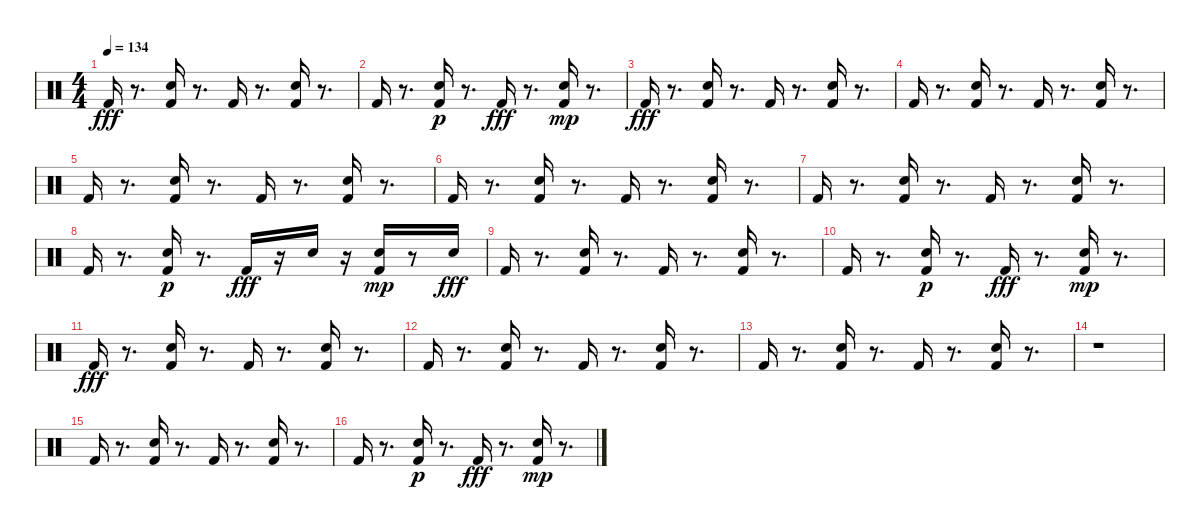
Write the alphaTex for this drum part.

\track "" {instrument percussion}
\staff {score}
\articulation defaults
\ts (4 4)
\tempo 134
\clef neutral
\ks c "Kick (hit) 2".16{dy fff}
r.8{d} ("Kick (hit) 2" "Snare (hit) 2").16 r.8{d} "Kick (hit) 2".16 r.8{d} ("Kick (hit) 2" "Snare (hit) 2").16 r.8{d} |
"Kick (hit) 2".16 r.8{d} ("Snare (hit) 2" "Kick (hit) 2").16{dy p} r.8{d} "Kick (hit) 2".16{dy fff} r.8{d} ("Snare (hit) 2" "Kick (hit) 2").16{dy mp} r.8{d} |
"Kick (hit) 2".16{dy fff} r.8{d} ("Kick (hit) 2" "Snare (hit) 2").16 r.8{d} "Kick (hit) 2".16 r.8{d} ("Kick (hit) 2" "Snare (hit) 2").16 r.8{d} |
"Kick (hit) 2".16 r.8{d} ("Kick (hit) 2" "Snare (hit) 2").16 r.8{d} "Kick (hit) 2".16 r.8{d} ("Kick (hit) 2" "Snare (hit) 2").16 r.8{d} |
"Kick (hit) 2".16 r.8{d} ("Kick (hit) 2" "Snare (hit) 2").16 r.8{d} "Kick (hit) 2".16 r.8{d} ("Kick (hit) 2" "Snare (hit) 2").16 r.8{d} |
"Kick (hit) 2".16 r.8{d} ("Kick (hit) 2" "Snare (hit) 2").16 r.8{d} "Kick (hit) 2".16 r.8{d} ("Kick (hit) 2" "Snare (hit) 2").16 r.8{d} |
"Kick (hit) 2".16 r.8{d} ("Kick (hit) 2" "Snare (hit) 2").16 r.8{d} "Kick (hit) 2".16 r.8{d} ("Kick (hit) 2" "Snare (hit) 2").16 r.8{d} |
"Kick (hit) 2".16 r.8{d} ("Snare (hit) 2" "Kick (hit) 2").16{dy p} r.8{d} "Kick (hit) 2".16{dy fff} r.16 "Snare (hit) 2".16 r.16 ("Snare (hit) 2" "Kick (hit) 2").16{dy mp} r.8 "Snare (hit) 2".16{dy fff} |
"Kick (hit) 2".16 r.8{d} ("Kick (hit) 2" "Snare (hit) 2").16 r.8{d} "Kick (hit) 2".16 r.8{d} ("Kick (hit) 2" "Snare (hit) 2").16 r.8{d} |
"Kick (hit) 2".16 r.8{d} ("Snare (hit) 2" "Kick (hit) 2").16{dy p} r.8{d} "Kick (hit) 2".16{dy fff} r.8{d} ("Snare (hit) 2" "Kick (hit) 2").16{dy mp} r.8{d} |
"Kick (hit) 2".16{dy fff} r.8{d} ("Kick (hit) 2" "Snare (hit) 2").16 r.8{d} "Kick (hit) 2".16 r.8{d} ("Kick (hit) 2" "Snare (hit) 2").16 r.8{d} |
"Kick (hit) 2".16 r.8{d} ("Kick (hit) 2" "Snare (hit) 2").16 r.8{d} "Kick (hit) 2".16 r.8{d} ("Kick (hit) 2" "Snare (hit) 2").16 r.8{d} |
"Kick (hit) 2".16 r.8{d} ("Kick (hit) 2" "Snare (hit) 2").16 r.8{d} "Kick (hit) 2".16 r.8{d} ("Kick (hit) 2" "Snare (hit) 2").16 r.8{d} |
r.1 |
"Kick (hit) 2".16 r.8{d} ("Kick (hit) 2" "Snare (hit) 2").16 r.8{d} "Kick (hit) 2".16 r.8{d} ("Kick (hit) 2" "Snare (hit) 2").16 r.8{d} |
"Kick (hit) 2".16 r.8{d} ("Snare (hit) 2" "Kick (hit) 2").16{dy p} r.8{d} "Kick (hit) 2".16{dy fff} r.8{d} ("Snare (hit) 2" "Kick (hit) 2").16{dy mp} r.8{d}
